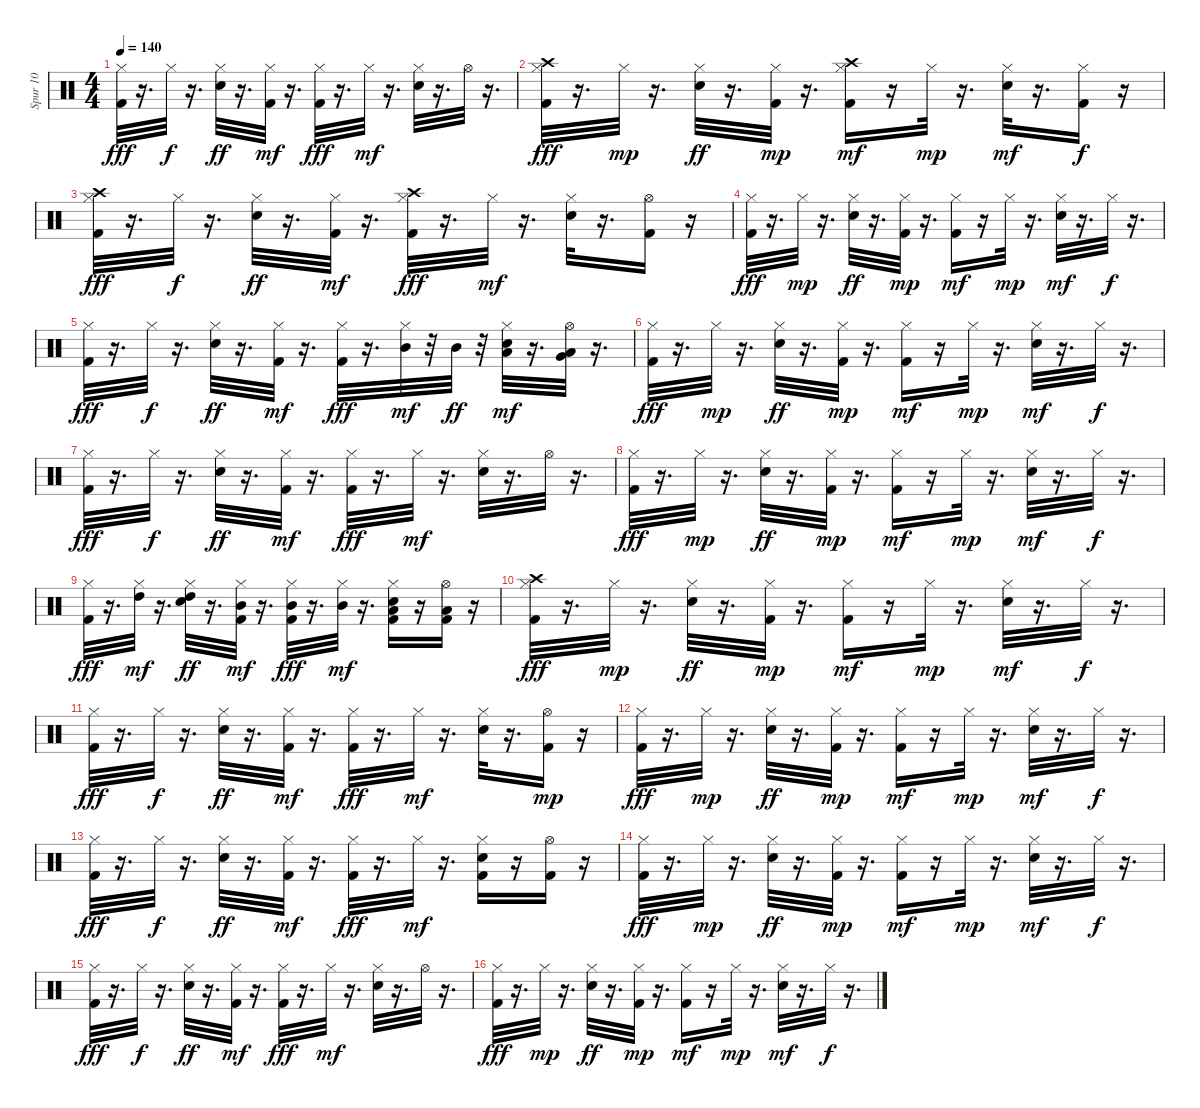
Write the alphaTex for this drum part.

\track ("Spur 10" "Spur 10") {instrument percussion}
\staff {score}
\articulation defaults
\ts (4 4)
\tempo 140
\clef neutral
\ks c
("Hi-Hat (closed)" "Kick (hit) 2").32{dy fff} r.16{d} "Hi-Hat (closed)".32{dy f} r.16{d} ("Hi-Hat (closed)" "Snare (hit) 2").32{dy ff} r.16{d} ("Kick (hit) 2" "Hi-Hat (closed)").32{dy mf} r.16{d} ("Hi-Hat (closed)" "Kick (hit) 2").32{dy fff} r.16{d} "Hi-Hat (closed)".32{dy mf} r.16{d} ("Snare (hit) 2" "Hi-Hat (closed)").32 r.16{d} "Hi-Hat (open)".32 r.16{d} |
("Crash high (hit)" "Hi-Hat (closed)" "Kick (hit) 2").32{dy fff} r.16{d} "Hi-Hat (closed)".32{dy mp} r.16{d} ("Hi-Hat (closed)" "Snare (hit) 2").32{dy ff} r.16{d} ("Kick (hit) 2" "Hi-Hat (closed)").32{dy mp} r.16{d} ("Crash high (hit)" "Kick (hit) 2" "Hi-Hat (closed)").16{dy mf} r.16 "Hi-Hat (closed)".32{dy mp} r.16{d} ("Snare (hit) 2" "Hi-Hat (closed)").32{dy mf} r.16{d} ("Kick (hit) 2" "Hi-Hat (closed)").16{dy f} r.16 |
("Crash high (hit)" "Hi-Hat (closed)" "Kick (hit) 2").32{dy fff} r.16{d} "Hi-Hat (closed)".32{dy f} r.16{d} ("Hi-Hat (closed)" "Snare (hit) 2").32{dy ff} r.16{d} ("Kick (hit) 2" "Hi-Hat (closed)").32{dy mf} r.16{d} ("Crash high (hit)" "Hi-Hat (closed)" "Kick (hit) 2").32{dy fff} r.16{d} "Hi-Hat (closed)".32{dy mf} r.16{d} ("Snare (hit) 2" "Hi-Hat (closed)").32 r.16{d} ("Kick (hit) 2" "Hi-Hat (open)").16 r.16 |
("Hi-Hat (closed)" "Kick (hit) 2").32{dy fff} r.16{d} "Hi-Hat (closed)".32{dy mp} r.16{d} ("Hi-Hat (closed)" "Snare (hit) 2").32{dy ff} r.16{d} ("Kick (hit) 2" "Hi-Hat (closed)").32{dy mp} r.16{d} ("Kick (hit) 2" "Hi-Hat (closed)").16{dy mf} r.16 "Hi-Hat (closed)".32{dy mp} r.16{d} ("Snare (hit) 2" "Hi-Hat (closed)").32{dy mf} r.16{d} "Hi-Hat (closed)".32{dy f} r.16{d} |
("Hi-Hat (closed)" "Kick (hit) 2").32{dy fff} r.16{d} "Hi-Hat (closed)".32{dy f} r.16{d} ("Hi-Hat (closed)" "Snare (hit) 2").32{dy ff} r.16{d} ("Kick (hit) 2" "Hi-Hat (closed)").32{dy mf} r.16{d} ("Hi-Hat (closed)" "Kick (hit) 2").32{dy fff} r.16{d} ("Mid Tom (hit)" "Hi-Hat (closed)").32{dy mf} r.32 "Mid Tom (hit)".32{dy ff} r.32 ("Low Tom (hit)" "Snare (hit) 2" "Hi-Hat (closed)").32{dy mf} r.16{d} ("Low Tom (hit)" "Very Low Tom (hit)" "Hi-Hat (open)").32 r.16{d} |
("Hi-Hat (closed)" "Kick (hit) 2").32{dy fff} r.16{d} "Hi-Hat (closed)".32{dy mp} r.16{d} ("Hi-Hat (closed)" "Snare (hit) 2").32{dy ff} r.16{d} ("Kick (hit) 2" "Hi-Hat (closed)").32{dy mp} r.16{d} ("Kick (hit) 2" "Hi-Hat (closed)").16{dy mf} r.16 "Hi-Hat (closed)".32{dy mp} r.16{d} ("Snare (hit) 2" "Hi-Hat (closed)").32{dy mf} r.16{d} "Hi-Hat (closed)".32{dy f} r.16{d} |
("Hi-Hat (closed)" "Kick (hit) 2").32{dy fff} r.16{d} "Hi-Hat (closed)".32{dy f} r.16{d} ("Hi-Hat (closed)" "Snare (hit) 2").32{dy ff} r.16{d} ("Kick (hit) 2" "Hi-Hat (closed)").32{dy mf} r.16{d} ("Hi-Hat (closed)" "Kick (hit) 2").32{dy fff} r.16{d} "Hi-Hat (closed)".32{dy mf} r.16{d} ("Snare (hit) 2" "Hi-Hat (closed)").32 r.16{d} "Hi-Hat (open)".32 r.16{d} |
("Hi-Hat (closed)" "Kick (hit) 2").32{dy fff} r.16{d} "Hi-Hat (closed)".32{dy mp} r.16{d} ("Hi-Hat (closed)" "Snare (hit) 2").32{dy ff} r.16{d} ("Kick (hit) 2" "Hi-Hat (closed)").32{dy mp} r.16{d} ("Kick (hit) 2" "Hi-Hat (closed)").16{dy mf} r.16 "Hi-Hat (closed)".32{dy mp} r.16{d} ("Snare (hit) 2" "Hi-Hat (closed)").32{dy mf} r.16{d} "Hi-Hat (closed)".32{dy f} r.16{d} |
("Hi-Hat (closed)" "Kick (hit) 2").32{dy fff} r.16{d} ("High Tom (hit)" "Hi-Hat (closed)").32{dy mf} r.16{d} ("High Tom (hit)" "Hi-Hat (closed)" "Snare (hit) 2").32{dy ff} r.16{d} ("Mid Tom (hit)" "Kick (hit) 2" "Hi-Hat (closed)").32{dy mf} r.16{d} ("Mid Tom (hit)" "Hi-Hat (closed)" "Kick (hit) 2").32{dy fff} r.16{d} ("Mid Tom (hit)" "Hi-Hat (closed)").32{dy mf} r.16{d} ("Low Tom (hit)" "Kick (hit) 2" "Snare (hit) 2" "Hi-Hat (closed)").16 r.16 ("Low Tom (hit)" "Kick (hit) 2" "Hi-Hat (open)").16 r.16 |
("Crash high (hit)" "Hi-Hat (closed)" "Kick (hit) 2").32{dy fff} r.16{d} "Hi-Hat (closed)".32{dy mp} r.16{d} ("Hi-Hat (closed)" "Snare (hit) 2").32{dy ff} r.16{d} ("Kick (hit) 2" "Hi-Hat (closed)").32{dy mp} r.16{d} ("Kick (hit) 2" "Hi-Hat (closed)").16{dy mf} r.16 "Hi-Hat (closed)".32{dy mp} r.16{d} ("Snare (hit) 2" "Hi-Hat (closed)").32{dy mf} r.16{d} "Hi-Hat (closed)".32{dy f} r.16{d} |
("Hi-Hat (closed)" "Kick (hit) 2").32{dy fff} r.16{d} "Hi-Hat (closed)".32{dy f} r.16{d} ("Hi-Hat (closed)" "Snare (hit) 2").32{dy ff} r.16{d} ("Kick (hit) 2" "Hi-Hat (closed)").32{dy mf} r.16{d} ("Hi-Hat (closed)" "Kick (hit) 2").32{dy fff} r.16{d} "Hi-Hat (closed)".32{dy mf} r.16{d} ("Snare (hit) 2" "Hi-Hat (closed)").32 r.16{d} ("Hi-Hat (open)" "Kick (hit) 2").16{dy mp} r.16 |
("Hi-Hat (closed)" "Kick (hit) 2").32{dy fff} r.16{d} "Hi-Hat (closed)".32{dy mp} r.16{d} ("Hi-Hat (closed)" "Snare (hit) 2").32{dy ff} r.16{d} ("Kick (hit) 2" "Hi-Hat (closed)").32{dy mp} r.16{d} ("Kick (hit) 2" "Hi-Hat (closed)").16{dy mf} r.16 "Hi-Hat (closed)".32{dy mp} r.16{d} ("Snare (hit) 2" "Hi-Hat (closed)").32{dy mf} r.16{d} "Hi-Hat (closed)".32{dy f} r.16{d} |
("Hi-Hat (closed)" "Kick (hit) 2").32{dy fff} r.16{d} "Hi-Hat (closed)".32{dy f} r.16{d} ("Hi-Hat (closed)" "Snare (hit) 2").32{dy ff} r.16{d} ("Kick (hit) 2" "Hi-Hat (closed)").32{dy mf} r.16{d} ("Hi-Hat (closed)" "Kick (hit) 2").32{dy fff} r.16{d} "Hi-Hat (closed)".32{dy mf} r.16{d} ("Kick (hit) 2" "Snare (hit) 2" "Hi-Hat (closed)").16 r.16 ("Kick (hit) 2" "Hi-Hat (open)").16 r.16 |
("Hi-Hat (closed)" "Kick (hit) 2").32{dy fff} r.16{d} "Hi-Hat (closed)".32{dy mp} r.16{d} ("Hi-Hat (closed)" "Snare (hit) 2").32{dy ff} r.16{d} ("Kick (hit) 2" "Hi-Hat (closed)").32{dy mp} r.16{d} ("Kick (hit) 2" "Hi-Hat (closed)").16{dy mf} r.16 "Hi-Hat (closed)".32{dy mp} r.16{d} ("Snare (hit) 2" "Hi-Hat (closed)").32{dy mf} r.16{d} "Hi-Hat (closed)".32{dy f} r.16{d} |
("Hi-Hat (closed)" "Kick (hit) 2").32{dy fff} r.16{d} "Hi-Hat (closed)".32{dy f} r.16{d} ("Hi-Hat (closed)" "Snare (hit) 2").32{dy ff} r.16{d} ("Kick (hit) 2" "Hi-Hat (closed)").32{dy mf} r.16{d} ("Hi-Hat (closed)" "Kick (hit) 2").32{dy fff} r.16{d} "Hi-Hat (closed)".32{dy mf} r.16{d} ("Snare (hit) 2" "Hi-Hat (closed)").32 r.16{d} "Hi-Hat (open)".32 r.16{d} |
("Hi-Hat (closed)" "Kick (hit) 2").32{dy fff} r.16{d} "Hi-Hat (closed)".32{dy mp} r.16{d} ("Hi-Hat (closed)" "Snare (hit) 2").32{dy ff} r.16{d} ("Kick (hit) 2" "Hi-Hat (closed)").32{dy mp} r.16{d} ("Kick (hit) 2" "Hi-Hat (closed)").16{dy mf} r.16 "Hi-Hat (closed)".32{dy mp} r.16{d} ("Snare (hit) 2" "Hi-Hat (closed)").32{dy mf} r.16{d} "Hi-Hat (closed)".32{dy f} r.16{d}
